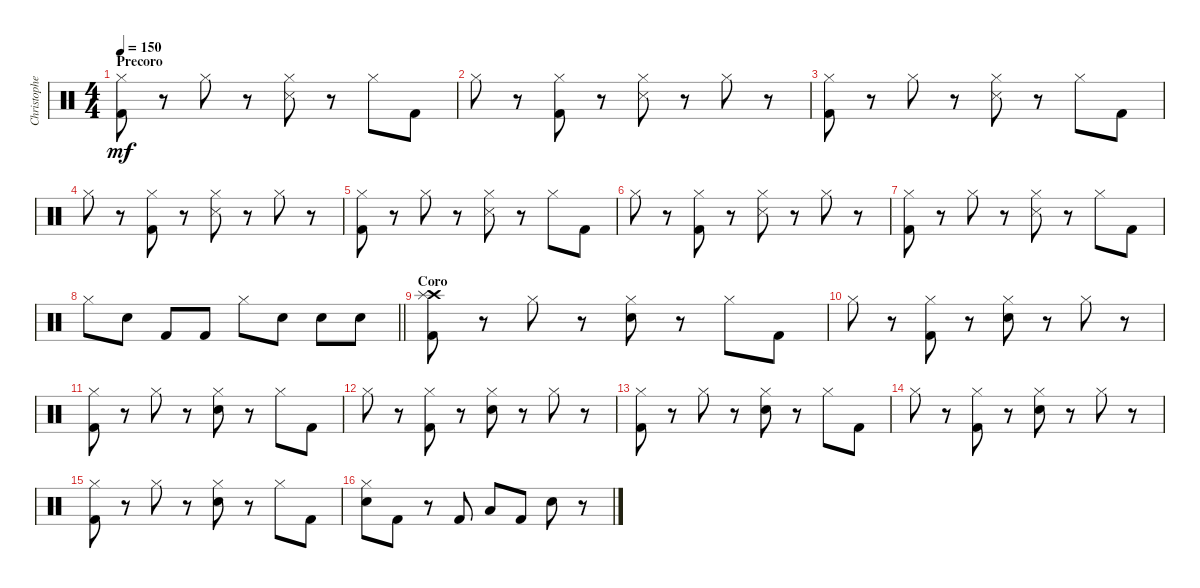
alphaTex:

\track ("Christopher" "Christophe") {instrument percussion}
\staff {score}
\articulation defaults
\ts (4 4)
\section ("" "Precoro")
\tempo 150
\clef neutral
\ks c
("Hi-Hat (closed)" "Kick (hit) 2").8{dy mf} r.8 "Hi-Hat (closed)".8 r.8 ("Hi-Hat (closed)" "Snare (side stick) 3").8 r.8 "Hi-Hat (closed)".8 "Kick (hit) 2".8 |
"Hi-Hat (closed)".8 r.8 ("Hi-Hat (closed)" "Kick (hit) 2").8 r.8 ("Hi-Hat (closed)" "Snare (side stick) 3").8 r.8 "Hi-Hat (closed)".8 r.8 |
("Hi-Hat (closed)" "Kick (hit) 2").8 r.8 "Hi-Hat (closed)".8 r.8 ("Hi-Hat (closed)" "Snare (side stick) 3").8 r.8 "Hi-Hat (closed)".8 "Kick (hit) 2".8 |
"Hi-Hat (closed)".8 r.8 ("Hi-Hat (closed)" "Kick (hit) 2").8 r.8 ("Hi-Hat (closed)" "Snare (side stick) 3").8 r.8 "Hi-Hat (closed)".8 r.8 |
("Hi-Hat (closed)" "Kick (hit) 2").8 r.8 "Hi-Hat (closed)".8 r.8 ("Hi-Hat (closed)" "Snare (side stick) 3").8 r.8 "Hi-Hat (closed)".8 "Kick (hit) 2".8 |
"Hi-Hat (closed)".8 r.8 ("Hi-Hat (closed)" "Kick (hit) 2").8 r.8 ("Hi-Hat (closed)" "Snare (side stick) 3").8 r.8 "Hi-Hat (closed)".8 r.8 |
("Hi-Hat (closed)" "Kick (hit) 2").8 r.8 "Hi-Hat (closed)".8 r.8 ("Hi-Hat (closed)" "Snare (side stick) 3").8 r.8 "Hi-Hat (closed)".8 "Kick (hit) 2".8 |
\barLineRight lightlight "Hi-Hat (closed)".8 "Electric Snare (hit)".8 "Kick (hit) 2".8 "Kick (hit) 2".8 "Hi-Hat (closed)".8 "Electric Snare (hit)".8 "Electric Snare (hit)".8 "Electric Snare (hit)".8
|
\section ("" "Coro")
("Crash high (hit)" "Splash (hit)" "Kick (hit) 2").8 r.8 "Hi-Hat (closed)".8 r.8 ("Hi-Hat (closed)" "Electric Snare (hit)").8 r.8 "Hi-Hat (closed)".8 "Kick (hit) 2".8 |
"Hi-Hat (closed)".8 r.8 ("Hi-Hat (closed)" "Kick (hit) 2").8 r.8 ("Hi-Hat (closed)" "Electric Snare (hit)").8 r.8 "Hi-Hat (closed)".8 r.8 |
("Hi-Hat (closed)" "Kick (hit) 2").8 r.8 "Hi-Hat (closed)".8 r.8 ("Hi-Hat (closed)" "Electric Snare (hit)").8 r.8 "Hi-Hat (closed)".8 "Kick (hit) 2".8 |
"Hi-Hat (closed)".8 r.8 ("Hi-Hat (closed)" "Kick (hit) 2").8 r.8 ("Hi-Hat (closed)" "Electric Snare (hit)").8 r.8 "Hi-Hat (closed)".8 r.8 |
("Hi-Hat (closed)" "Kick (hit) 2").8 r.8 "Hi-Hat (closed)".8 r.8 ("Hi-Hat (closed)" "Electric Snare (hit)").8 r.8 "Hi-Hat (closed)".8 "Kick (hit) 2".8 |
"Hi-Hat (closed)".8 r.8 ("Hi-Hat (closed)" "Kick (hit) 2").8 r.8 ("Hi-Hat (closed)" "Electric Snare (hit)").8 r.8 "Hi-Hat (closed)".8 r.8 |
("Hi-Hat (closed)" "Kick (hit) 2").8 r.8 "Hi-Hat (closed)".8 r.8 ("Hi-Hat (closed)" "Electric Snare (hit)").8 r.8 "Hi-Hat (closed)".8 "Kick (hit) 2".8 |
("Hi-Hat (closed)" "Electric Snare (hit)").8 "Kick (hit) 2".8 r.8 "Kick (hit) 2".8 "Low Tom (hit)".8 "Kick (hit) 2".8 "Electric Snare (hit)".8 r.8
